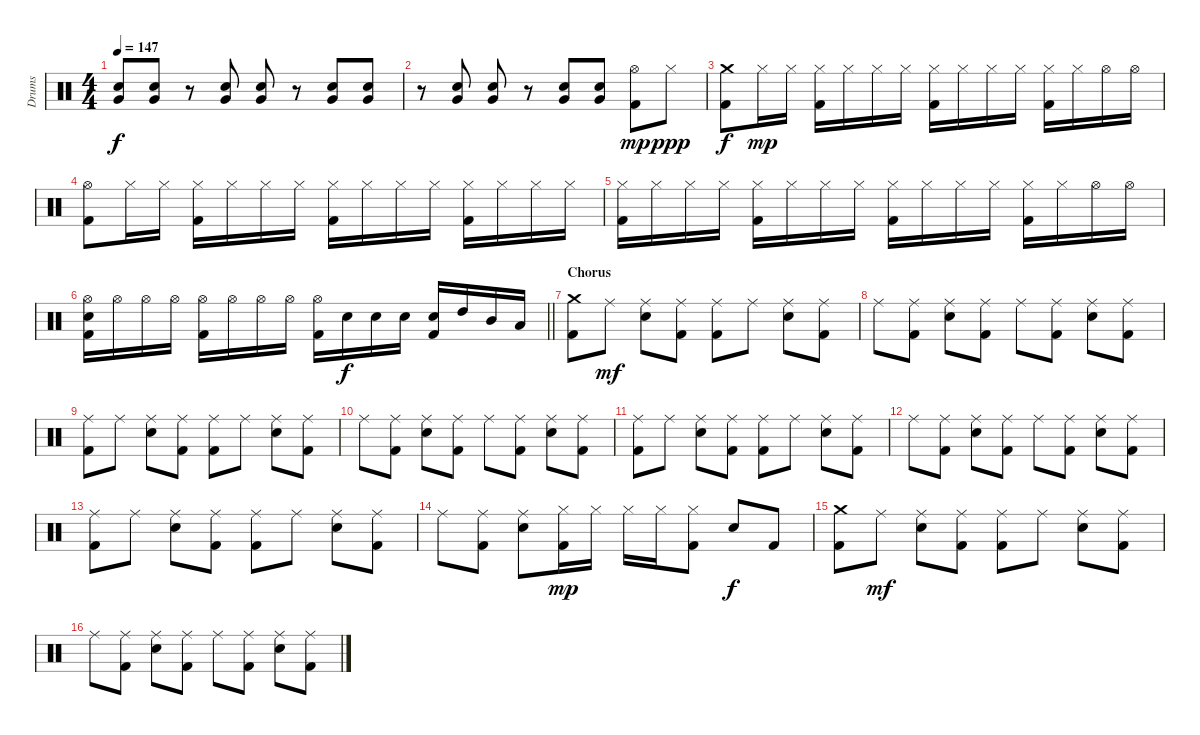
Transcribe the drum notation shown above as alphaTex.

\track ("Drums" "Drums") {instrument percussion}
\staff {score}
\articulation defaults
\ts (4 4)
\tempo 147
\clef neutral
\ks c
("Very Low Tom (hit)" "Snare (hit) 2").8{dy f} ("Very Low Tom (hit)" "Snare (hit) 2").8 r.8 ("Very Low Tom (hit)" "Snare (hit) 2").8 ("Very Low Tom (hit)" "Snare (hit) 2").8 r.8 ("Very Low Tom (hit)" "Snare (hit) 2").8 ("Very Low Tom (hit)" "Snare (hit) 2").8 |
r.8 ("Very Low Tom (hit)" "Snare (hit) 2").8 ("Very Low Tom (hit)" "Snare (hit) 2").8 r.8 ("Very Low Tom (hit)" "Snare (hit) 2").8 ("Very Low Tom (hit)" "Snare (hit) 2").8 ("Hi-Hat (open)" "Kick (hit) 2").8{dy mp} "Hi-Hat (closed)".8{dy ppp} |
("Crash medium (hit)" "Kick (hit) 2").8{dy f} "Hi-Hat (closed)".16{dy mp} "Hi-Hat (closed)".16 ("Hi-Hat (closed)" "Kick (hit) 2").16 "Hi-Hat (closed)".16 "Hi-Hat (closed)".16 "Hi-Hat (closed)".16 ("Hi-Hat (closed)" "Kick (hit) 2").16 "Hi-Hat (closed)".16 "Hi-Hat (closed)".16 "Hi-Hat (closed)".16 ("Hi-Hat (closed)" "Kick (hit) 2").16 "Hi-Hat (closed)".16 "Hi-Hat (open)".16 "Hi-Hat (open)".16 |
("Hi-Hat (open)" "Kick (hit) 2").8 "Hi-Hat (closed)".16 "Hi-Hat (closed)".16 ("Hi-Hat (closed)" "Kick (hit) 2").16 "Hi-Hat (closed)".16 "Hi-Hat (closed)".16 "Hi-Hat (closed)".16 ("Hi-Hat (closed)" "Kick (hit) 2").16 "Hi-Hat (closed)".16 "Hi-Hat (closed)".16 "Hi-Hat (closed)".16 ("Hi-Hat (closed)" "Kick (hit) 2").16 "Hi-Hat (closed)".16 "Hi-Hat (closed)".16 "Hi-Hat (closed)".16 |
("Hi-Hat (closed)" "Kick (hit) 2").16 "Hi-Hat (closed)".16 "Hi-Hat (closed)".16 "Hi-Hat (closed)".16 ("Hi-Hat (closed)" "Kick (hit) 2").16 "Hi-Hat (closed)".16 "Hi-Hat (closed)".16 "Hi-Hat (closed)".16 ("Hi-Hat (closed)" "Kick (hit) 2").16 "Hi-Hat (closed)".16 "Hi-Hat (closed)".16 "Hi-Hat (closed)".16 ("Hi-Hat (closed)" "Kick (hit) 2").16 "Hi-Hat (closed)".16 "Hi-Hat (open)".16 "Hi-Hat (open)".16 |
\barLineRight lightlight
("Hi-Hat (open)" "Snare (hit) 2" "Kick (hit) 2").16 "Hi-Hat (open)".16 "Hi-Hat (open)".16 "Hi-Hat (open)".16 ("Hi-Hat (open)" "Kick (hit) 2").16 "Hi-Hat (open)".16 "Hi-Hat (open)".16 "Hi-Hat (open)".16 ("Hi-Hat (open)" "Kick (hit) 2").16 "Snare (hit) 2".16{dy f} "Snare (hit) 2".16 "Snare (hit) 2".16 ("Snare (hit) 2" "Kick (hit) 2").16 "High Tom (hit)".16 "Mid Tom (hit)".16 "Low Tom (hit)".16 |
\section ("" "Chorus")
("Crash medium (hit)" "Kick (hit) 2").8 "Ride (middle)".8{dy mf} ("Ride (middle)" "Snare (hit) 2").8 ("Ride (middle)" "Kick (hit) 2").8 ("Ride (middle)" "Kick (hit) 2").8 "Ride (middle)".8 ("Ride (middle)" "Snare (hit) 2").8 ("Ride (middle)" "Kick (hit) 2").8 |
"Ride (middle)".8 ("Ride (middle)" "Kick (hit) 2").8 ("Ride (middle)" "Snare (hit) 2").8 ("Ride (middle)" "Kick (hit) 2").8 "Ride (middle)".8 ("Ride (middle)" "Kick (hit) 2").8 ("Ride (middle)" "Snare (hit) 2").8 ("Ride (middle)" "Kick (hit) 2").8 |
("Ride (middle)" "Kick (hit) 2").8 "Ride (middle)".8 ("Ride (middle)" "Snare (hit) 2").8 ("Ride (middle)" "Kick (hit) 2").8 ("Ride (middle)" "Kick (hit) 2").8 "Ride (middle)".8 ("Ride (middle)" "Snare (hit) 2").8 ("Ride (middle)" "Kick (hit) 2").8 |
"Ride (middle)".8 ("Ride (middle)" "Kick (hit) 2").8 ("Ride (middle)" "Snare (hit) 2").8 ("Ride (middle)" "Kick (hit) 2").8 "Ride (middle)".8 ("Ride (middle)" "Kick (hit) 2").8 ("Ride (middle)" "Snare (hit) 2").8 ("Ride (middle)" "Kick (hit) 2").8 |
("Ride (middle)" "Kick (hit) 2").8 "Ride (middle)".8 ("Ride (middle)" "Snare (hit) 2").8 ("Ride (middle)" "Kick (hit) 2").8 ("Ride (middle)" "Kick (hit) 2").8 "Ride (middle)".8 ("Ride (middle)" "Snare (hit) 2").8 ("Ride (middle)" "Kick (hit) 2").8 |
"Ride (middle)".8 ("Ride (middle)" "Kick (hit) 2").8 ("Ride (middle)" "Snare (hit) 2").8 ("Ride (middle)" "Kick (hit) 2").8 "Ride (middle)".8 ("Ride (middle)" "Kick (hit) 2").8 ("Ride (middle)" "Snare (hit) 2").8 ("Ride (middle)" "Kick (hit) 2").8 |
("Ride (middle)" "Kick (hit) 2").8 "Ride (middle)".8 ("Ride (middle)" "Snare (hit) 2").8 ("Ride (middle)" "Kick (hit) 2").8 ("Ride (middle)" "Kick (hit) 2").8 "Ride (middle)".8 ("Ride (middle)" "Snare (hit) 2").8 ("Ride (middle)" "Kick (hit) 2").8 |
"Ride (middle)".8 ("Ride (middle)" "Kick (hit) 2").8 ("Ride (middle)" "Snare (hit) 2").8 ("Hi-Hat (closed)" "Kick (hit) 2").16{dy mp} "Hi-Hat (closed)".16 "Hi-Hat (closed)".16 "Hi-Hat (closed)".16 ("Hi-Hat (closed)" "Kick (hit) 2").8 "Snare (hit) 2".8{dy f} "Kick (hit) 2".8 |
("Crash medium (hit)" "Kick (hit) 2").8 "Ride (middle)".8{dy mf} ("Ride (middle)" "Snare (hit) 2").8 ("Ride (middle)" "Kick (hit) 2").8 ("Ride (middle)" "Kick (hit) 2").8 "Ride (middle)".8 ("Ride (middle)" "Snare (hit) 2").8 ("Ride (middle)" "Kick (hit) 2").8 |
"Ride (middle)".8 ("Ride (middle)" "Kick (hit) 2").8 ("Ride (middle)" "Snare (hit) 2").8 ("Ride (middle)" "Kick (hit) 2").8 "Ride (middle)".8 ("Ride (middle)" "Kick (hit) 2").8 ("Ride (middle)" "Snare (hit) 2").8 ("Ride (middle)" "Kick (hit) 2").8
